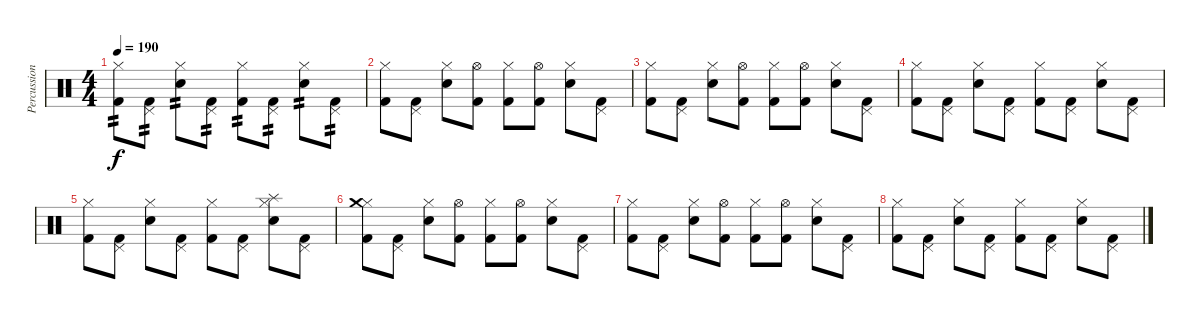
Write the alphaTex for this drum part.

\track ("Percussion" "Percussion") {instrument percussion}
\staff {score}
\articulation defaults
\ts (4 4)
\tempo 190
\clef neutral
\ks c
("Hi-Hat (closed)" "Kick (hit) 2").8{tp 2 dy f} ("Pedal Hi-Hat (hit)" "Kick (hit) 2").8{tp 2} ("Hi-Hat (closed)" "Snare (hit) 2").8{tp 2} ("Pedal Hi-Hat (hit)" "Kick (hit) 2").8{tp 2} ("Hi-Hat (closed)" "Kick (hit) 2").8{tp 2} ("Pedal Hi-Hat (hit)" "Kick (hit) 2").8{tp 2} ("Hi-Hat (closed)" "Snare (hit) 2").8{tp 2} ("Pedal Hi-Hat (hit)" "Kick (hit) 2").8{tp 2} |
("Hi-Hat (closed)" "Kick (hit) 2").8 ("Pedal Hi-Hat (hit)" "Kick (hit) 2").8 ("Hi-Hat (closed)" "Snare (hit) 2").8 ("Hi-Hat (open)" "Kick (hit) 2").8 ("Hi-Hat (closed)" "Kick (hit) 2").8 ("Hi-Hat (open)" "Kick (hit) 2").8 ("Hi-Hat (closed)" "Snare (hit) 2").8 ("Pedal Hi-Hat (hit)" "Kick (hit) 2").8 |
("Hi-Hat (closed)" "Kick (hit) 2").8 ("Pedal Hi-Hat (hit)" "Kick (hit) 2").8 ("Hi-Hat (closed)" "Snare (hit) 2").8 ("Hi-Hat (open)" "Kick (hit) 2").8 ("Hi-Hat (closed)" "Kick (hit) 2").8 ("Hi-Hat (open)" "Kick (hit) 2").8 ("Hi-Hat (closed)" "Snare (hit) 2").8 ("Pedal Hi-Hat (hit)" "Kick (hit) 2").8 |
("Hi-Hat (closed)" "Kick (hit) 2").8 ("Pedal Hi-Hat (hit)" "Kick (hit) 2").8 ("Hi-Hat (closed)" "Snare (hit) 2").8 ("Pedal Hi-Hat (hit)" "Kick (hit) 2").8 ("Hi-Hat (closed)" "Kick (hit) 2").8 ("Pedal Hi-Hat (hit)" "Kick (hit) 2").8 ("Hi-Hat (closed)" "Snare (hit) 2").8 ("Pedal Hi-Hat (hit)" "Kick (hit) 2").8 |
("Hi-Hat (closed)" "Kick (hit) 2").8 ("Pedal Hi-Hat (hit)" "Kick (hit) 2").8 ("Hi-Hat (closed)" "Snare (hit) 2").8 ("Pedal Hi-Hat (hit)" "Kick (hit) 2").8 ("Hi-Hat (closed)" "Kick (hit) 2").8 ("Pedal Hi-Hat (hit)" "Kick (hit) 2").8 ("Hi-Hat (closed)" "Splash (hit)" "Snare (hit) 2").8 ("Pedal Hi-Hat (hit)" "Kick (hit) 2").8 |
("Hi-Hat (closed)" "Crash medium (hit)" "Kick (hit) 2").8 ("Pedal Hi-Hat (hit)" "Kick (hit) 2").8 ("Hi-Hat (closed)" "Snare (hit) 2").8 ("Hi-Hat (open)" "Kick (hit) 2").8 ("Hi-Hat (closed)" "Kick (hit) 2").8 ("Hi-Hat (open)" "Kick (hit) 2").8 ("Hi-Hat (closed)" "Snare (hit) 2").8 ("Pedal Hi-Hat (hit)" "Kick (hit) 2").8 |
("Hi-Hat (closed)" "Kick (hit) 2").8 ("Pedal Hi-Hat (hit)" "Kick (hit) 2").8 ("Hi-Hat (closed)" "Snare (hit) 2").8 ("Hi-Hat (open)" "Kick (hit) 2").8 ("Hi-Hat (closed)" "Kick (hit) 2").8 ("Hi-Hat (open)" "Kick (hit) 2").8 ("Hi-Hat (closed)" "Snare (hit) 2").8 ("Pedal Hi-Hat (hit)" "Kick (hit) 2").8 |
("Hi-Hat (closed)" "Kick (hit) 2").8 ("Pedal Hi-Hat (hit)" "Kick (hit) 2").8 ("Hi-Hat (closed)" "Snare (hit) 2").8 ("Pedal Hi-Hat (hit)" "Kick (hit) 2").8 ("Hi-Hat (closed)" "Kick (hit) 2").8 ("Pedal Hi-Hat (hit)" "Kick (hit) 2").8 ("Hi-Hat (closed)" "Snare (hit) 2").8 ("Pedal Hi-Hat (hit)" "Kick (hit) 2").8
